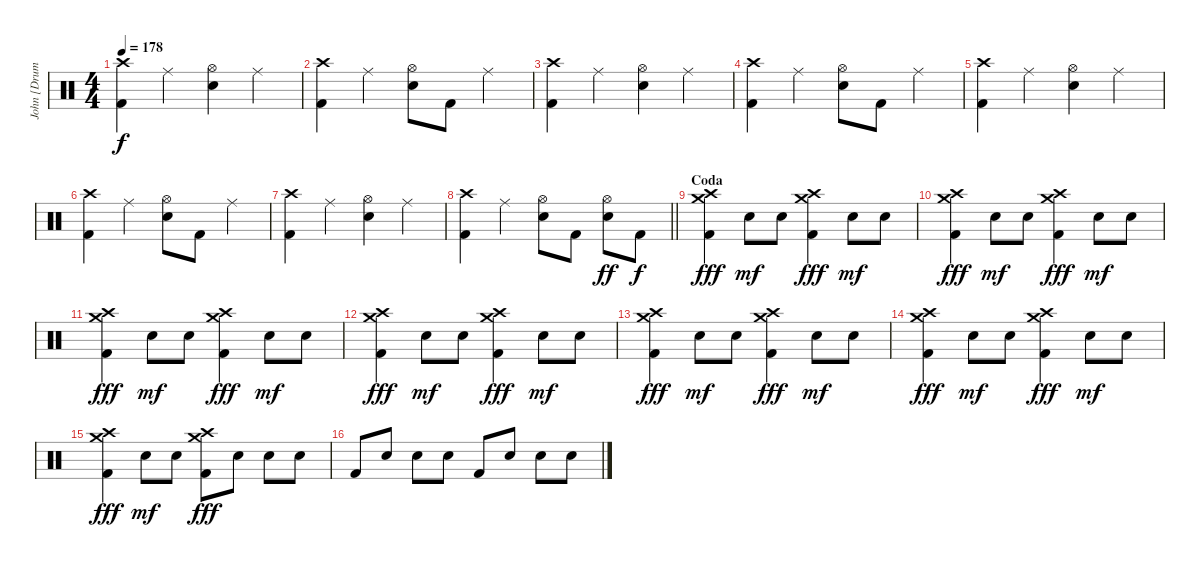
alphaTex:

\track ("John [Drums]" "John [Drum") {instrument percussion}
\staff {score}
\articulation defaults
\ts (4 4)
\tempo 178
\clef neutral
\ks c
("Crash high (hit)" "Kick (hit) 2").4{dy f} "Ride (middle)".4 ("Hi-Hat (open)" "Electric Snare (hit)").4 "Ride (middle)".4 |
("Crash high (hit)" "Kick (hit) 2").4 "Ride (middle)".4 ("Hi-Hat (open)" "Electric Snare (hit)").8 "Kick (hit) 2".8 "Ride (middle)".4 |
("Crash high (hit)" "Kick (hit) 2").4 "Ride (middle)".4 ("Hi-Hat (open)" "Electric Snare (hit)").4 "Ride (middle)".4 |
("Crash high (hit)" "Kick (hit) 2").4 "Ride (middle)".4 ("Hi-Hat (open)" "Electric Snare (hit)").8 "Kick (hit) 2".8 "Ride (middle)".4 |
("Crash high (hit)" "Kick (hit) 2").4 "Ride (middle)".4 ("Hi-Hat (open)" "Electric Snare (hit)").4 "Ride (middle)".4 |
("Crash high (hit)" "Kick (hit) 2").4 "Ride (middle)".4 ("Hi-Hat (open)" "Electric Snare (hit)").8 "Kick (hit) 2".8 "Ride (middle)".4 |
("Crash high (hit)" "Kick (hit) 2").4 "Ride (middle)".4 ("Hi-Hat (open)" "Electric Snare (hit)").4 "Ride (middle)".4 |
\barLineRight lightlight
("Crash high (hit)" "Kick (hit) 2").4 "Ride (middle)".4 ("Hi-Hat (open)" "Electric Snare (hit)").8 "Kick (hit) 2".8 ("Hi-Hat (open)" "Electric Snare (hit)").8{dy ff} "Kick (hit) 2".8{dy f} |
\section ("" "Coda")
("Crash high (hit)" "Crash medium (hit)" "Kick (hit) 2").4{dy fff} "Electric Snare (hit)".8{dy mf} "Electric Snare (hit)".8 ("Crash medium (hit)" "Crash high (hit)" "Kick (hit) 2").4{dy fff} "Electric Snare (hit)".8{dy mf} "Electric Snare (hit)".8 |
("Crash high (hit)" "Crash medium (hit)" "Kick (hit) 2").4{dy fff} "Electric Snare (hit)".8{dy mf} "Electric Snare (hit)".8 ("Crash medium (hit)" "Crash high (hit)" "Kick (hit) 2").4{dy fff} "Electric Snare (hit)".8{dy mf} "Electric Snare (hit)".8 |
("Crash high (hit)" "Crash medium (hit)" "Kick (hit) 2").4{dy fff} "Electric Snare (hit)".8{dy mf} "Electric Snare (hit)".8 ("Crash medium (hit)" "Crash high (hit)" "Kick (hit) 2").4{dy fff} "Electric Snare (hit)".8{dy mf} "Electric Snare (hit)".8 |
("Crash high (hit)" "Crash medium (hit)" "Kick (hit) 2").4{dy fff} "Electric Snare (hit)".8{dy mf} "Electric Snare (hit)".8 ("Crash medium (hit)" "Crash high (hit)" "Kick (hit) 2").4{dy fff} "Electric Snare (hit)".8{dy mf} "Electric Snare (hit)".8 |
("Crash high (hit)" "Crash medium (hit)" "Kick (hit) 2").4{dy fff} "Electric Snare (hit)".8{dy mf} "Electric Snare (hit)".8 ("Crash medium (hit)" "Crash high (hit)" "Kick (hit) 2").4{dy fff} "Electric Snare (hit)".8{dy mf} "Electric Snare (hit)".8 |
("Crash high (hit)" "Crash medium (hit)" "Kick (hit) 2").4{dy fff} "Electric Snare (hit)".8{dy mf} "Electric Snare (hit)".8 ("Crash medium (hit)" "Crash high (hit)" "Kick (hit) 2").4{dy fff} "Electric Snare (hit)".8{dy mf} "Electric Snare (hit)".8 |
("Crash high (hit)" "Crash medium (hit)" "Kick (hit) 2").4{dy fff} "Electric Snare (hit)".8{dy mf} "Electric Snare (hit)".8 ("Crash medium (hit)" "Crash high (hit)" "Kick (hit) 2").8{dy fff} "Electric Snare (hit)".8 "Electric Snare (hit)".8 "Electric Snare (hit)".8 |
"Kick (hit) 2".8 "Electric Snare (hit)".8 "Electric Snare (hit)".8 "Electric Snare (hit)".8 "Kick (hit) 2".8 "Electric Snare (hit)".8 "Electric Snare (hit)".8 "Electric Snare (hit)".8
